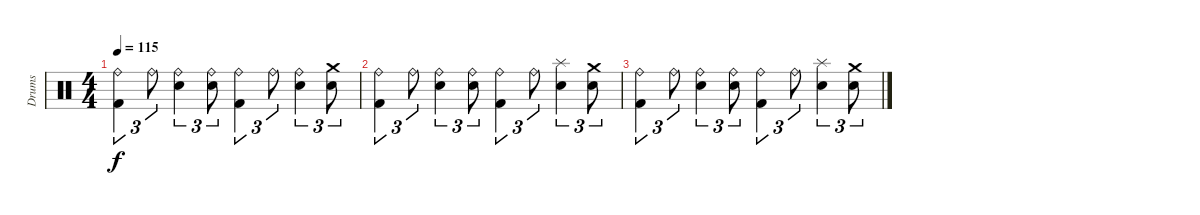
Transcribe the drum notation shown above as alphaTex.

\track ("Drums" "Drums") {instrument percussion}
\staff {score}
\articulation defaults
\ts (4 4)
\tempo 115
\clef neutral
\ks c
("Ride (bell)" "Kick (hit) 2").4{tu (3 2) dy f} "Ride (bell)".8{tu (3 2)} ("Ride (bell)" "Electric Snare (hit)").4{tu (3 2)} ("Ride (bell)" "Electric Snare (hit)").8{tu (3 2)} ("Ride (bell)" "Kick (hit) 2").4{tu (3 2)} "Ride (bell)".8{tu (3 2)} ("Ride (bell)" "Electric Snare (hit)").4{tu (3 2)} ("Crash medium (hit)" "Electric Snare (hit)").8{tu (3 2)} |
("Ride (bell)" "Kick (hit) 2").4{tu (3 2) volume 0} "Ride (bell)".8{tu (3 2)} ("Ride (bell)" "Electric Snare (hit)").4{tu (3 2)} ("Ride (bell)" "Electric Snare (hit)").8{tu (3 2)} ("Ride (bell)" "Kick (hit) 2").4{tu (3 2)} "Ride (bell)".8{tu (3 2)} ("Splash (hit)" "Electric Snare (hit)").4{tu (3 2)} ("Crash medium (hit)" "Electric Snare (hit)").8{tu (3 2)} |
("Ride (bell)" "Kick (hit) 2").4{tu (3 2)} "Ride (bell)".8{tu (3 2)} ("Ride (bell)" "Electric Snare (hit)").4{tu (3 2)} ("Ride (bell)" "Electric Snare (hit)").8{tu (3 2)} ("Ride (bell)" "Kick (hit) 2").4{tu (3 2)} "Ride (bell)".8{tu (3 2)} ("Splash (hit)" "Electric Snare (hit)").4{tu (3 2)} ("Crash medium (hit)" "Electric Snare (hit)").8{tu (3 2)}
